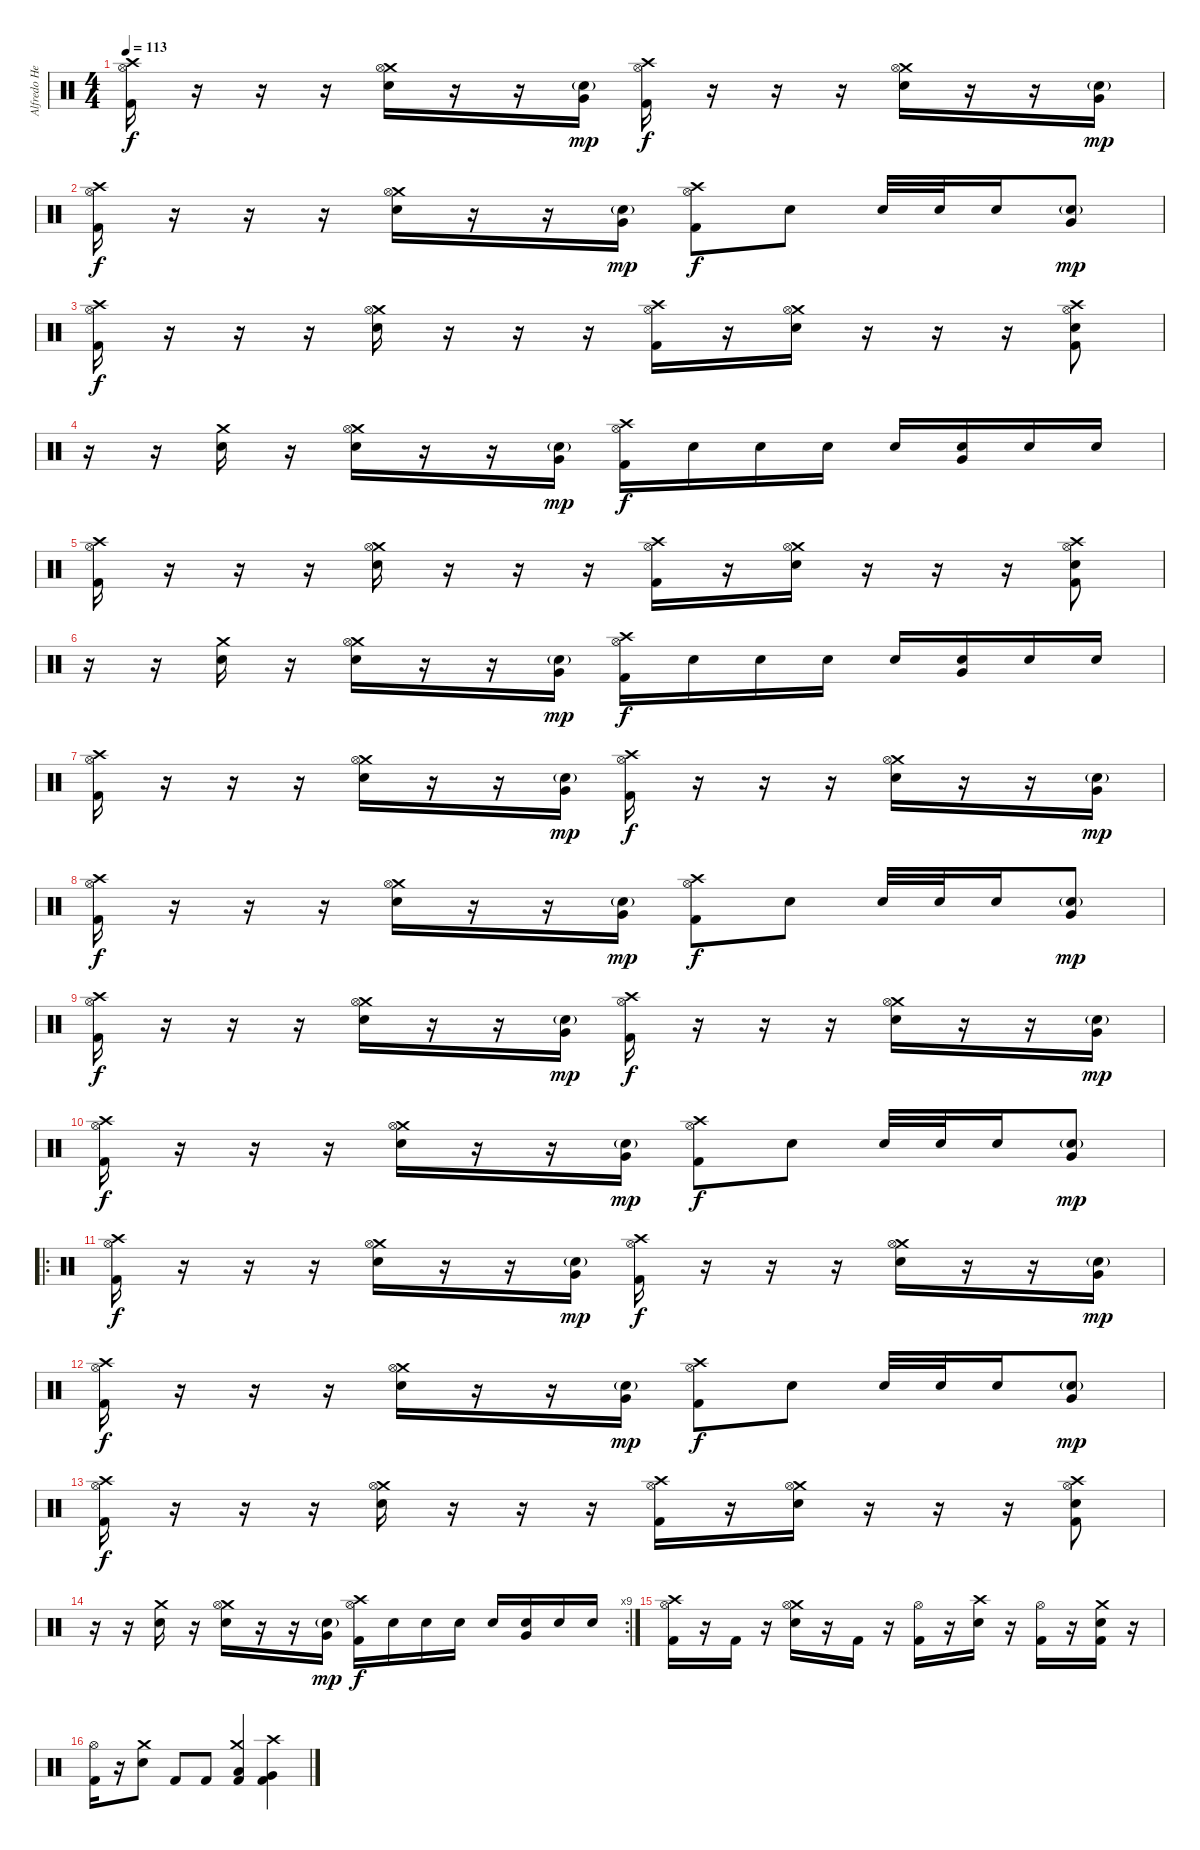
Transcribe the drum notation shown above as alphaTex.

\track ("Alfredo Hernández" "Alfredo He") {instrument percussion}
\staff {score}
\articulation defaults
\ts (4 4)
\tempo 113
\clef neutral
\ks c
("Crash high (hit)" "Hi-Hat (open)" "Kick (hit) 2").16{dy f} r.16 r.16 r.16 ("Crash medium (hit)" "Electric Snare (hit)" "Hi-Hat (open)").16 r.16 r.16 ("Electric Snare (hit)"{g} "Very Low Tom (hit)").16{dy mp} ("Crash high (hit)" "Hi-Hat (open)" "Kick (hit) 2").16{dy f} r.16 r.16 r.16 ("Crash medium (hit)" "Electric Snare (hit)" "Hi-Hat (open)").16 r.16 r.16 ("Electric Snare (hit)"{g} "Very Low Tom (hit)").16{dy mp} |
("Crash high (hit)" "Hi-Hat (open)" "Kick (hit) 2").16{dy f} r.16 r.16 r.16 ("Crash medium (hit)" "Electric Snare (hit)" "Hi-Hat (open)").16 r.16 r.16 ("Electric Snare (hit)"{g} "Very Low Tom (hit)").16{dy mp} ("Crash high (hit)" "Hi-Hat (open)" "Kick (hit) 2").8{dy f} "Electric Snare (hit)".8 "Electric Snare (hit)".32 "Electric Snare (hit)".32 "Electric Snare (hit)".16 ("Electric Snare (hit)"{g} "Very Low Tom (hit)").8{dy mp} |
("Crash high (hit)" "Hi-Hat (open)" "Kick (hit) 2").16{dy f} r.16 r.16 r.16 ("Crash medium (hit)" "Electric Snare (hit)" "Hi-Hat (open)").16 r.16 r.16 r.16 ("Crash high (hit)" "Hi-Hat (open)" "Kick (hit) 2").16 r.16 ("Crash medium (hit)" "Electric Snare (hit)" "Hi-Hat (open)").16 r.16 r.16 r.16 ("Crash high (hit)" "Electric Snare (hit)" "Hi-Hat (open)" "Kick (hit) 2").8 |
r.16 r.16 ("Crash medium (hit)" "Electric Snare (hit)").16 r.16 ("Crash medium (hit)" "Electric Snare (hit)" "Hi-Hat (open)").16 r.16 r.16 ("Electric Snare (hit)"{g} "Very Low Tom (hit)").16{dy mp} ("Crash high (hit)" "Hi-Hat (open)" "Kick (hit) 2").16{dy f} "Electric Snare (hit)".16 "Electric Snare (hit)".16 "Electric Snare (hit)".16 "Electric Snare (hit)".16 ("Electric Snare (hit)" "Very Low Tom (hit)").16 "Electric Snare (hit)".16 "Electric Snare (hit)".16 |
("Crash high (hit)" "Hi-Hat (open)" "Kick (hit) 2").16 r.16 r.16 r.16 ("Crash medium (hit)" "Electric Snare (hit)" "Hi-Hat (open)").16 r.16 r.16 r.16 ("Crash high (hit)" "Hi-Hat (open)" "Kick (hit) 2").16 r.16 ("Crash medium (hit)" "Electric Snare (hit)" "Hi-Hat (open)").16 r.16 r.16 r.16 ("Crash high (hit)" "Electric Snare (hit)" "Hi-Hat (open)" "Kick (hit) 2").8 |
r.16 r.16 ("Crash medium (hit)" "Electric Snare (hit)").16 r.16 ("Crash medium (hit)" "Electric Snare (hit)" "Hi-Hat (open)").16 r.16 r.16 ("Electric Snare (hit)"{g} "Very Low Tom (hit)").16{dy mp} ("Crash high (hit)" "Hi-Hat (open)" "Kick (hit) 2").16{dy f} "Electric Snare (hit)".16 "Electric Snare (hit)".16 "Electric Snare (hit)".16 "Electric Snare (hit)".16 ("Electric Snare (hit)" "Very Low Tom (hit)").16 "Electric Snare (hit)".16 "Electric Snare (hit)".16 |
("Crash high (hit)" "Hi-Hat (open)" "Kick (hit) 2").16 r.16 r.16 r.16 ("Crash medium (hit)" "Electric Snare (hit)" "Hi-Hat (open)").16 r.16 r.16 ("Electric Snare (hit)"{g} "Very Low Tom (hit)").16{dy mp} ("Crash high (hit)" "Hi-Hat (open)" "Kick (hit) 2").16{dy f} r.16 r.16 r.16 ("Crash medium (hit)" "Electric Snare (hit)" "Hi-Hat (open)").16 r.16 r.16 ("Electric Snare (hit)"{g} "Very Low Tom (hit)").16{dy mp} |
("Crash high (hit)" "Hi-Hat (open)" "Kick (hit) 2").16{dy f} r.16 r.16 r.16 ("Crash medium (hit)" "Electric Snare (hit)" "Hi-Hat (open)").16 r.16 r.16 ("Electric Snare (hit)"{g} "Very Low Tom (hit)").16{dy mp} ("Crash high (hit)" "Hi-Hat (open)" "Kick (hit) 2").8{dy f} "Electric Snare (hit)".8 "Electric Snare (hit)".32 "Electric Snare (hit)".32 "Electric Snare (hit)".16 ("Electric Snare (hit)"{g} "Very Low Tom (hit)").8{dy mp} |
("Crash high (hit)" "Hi-Hat (open)" "Kick (hit) 2").16{dy f} r.16 r.16 r.16 ("Crash medium (hit)" "Electric Snare (hit)" "Hi-Hat (open)").16 r.16 r.16 ("Electric Snare (hit)"{g} "Very Low Tom (hit)").16{dy mp} ("Crash high (hit)" "Hi-Hat (open)" "Kick (hit) 2").16{dy f} r.16 r.16 r.16 ("Crash medium (hit)" "Electric Snare (hit)" "Hi-Hat (open)").16 r.16 r.16 ("Electric Snare (hit)"{g} "Very Low Tom (hit)").16{dy mp} |
("Crash high (hit)" "Hi-Hat (open)" "Kick (hit) 2").16{dy f} r.16 r.16 r.16 ("Crash medium (hit)" "Electric Snare (hit)" "Hi-Hat (open)").16 r.16 r.16 ("Electric Snare (hit)"{g} "Very Low Tom (hit)").16{dy mp} ("Crash high (hit)" "Hi-Hat (open)" "Kick (hit) 2").8{dy f} "Electric Snare (hit)".8 "Electric Snare (hit)".32 "Electric Snare (hit)".32 "Electric Snare (hit)".16 ("Electric Snare (hit)"{g} "Very Low Tom (hit)").8{dy mp} |
\ro
("Crash high (hit)" "Hi-Hat (open)" "Kick (hit) 2").16{dy f} r.16 r.16 r.16 ("Crash medium (hit)" "Electric Snare (hit)" "Hi-Hat (open)").16 r.16 r.16 ("Electric Snare (hit)"{g} "Very Low Tom (hit)").16{dy mp} ("Crash high (hit)" "Hi-Hat (open)" "Kick (hit) 2").16{dy f} r.16 r.16 r.16 ("Crash medium (hit)" "Electric Snare (hit)" "Hi-Hat (open)").16 r.16 r.16 ("Electric Snare (hit)"{g} "Very Low Tom (hit)").16{dy mp} |
("Crash high (hit)" "Hi-Hat (open)" "Kick (hit) 2").16{dy f} r.16 r.16 r.16 ("Crash medium (hit)" "Electric Snare (hit)" "Hi-Hat (open)").16 r.16 r.16 ("Electric Snare (hit)"{g} "Very Low Tom (hit)").16{dy mp} ("Crash high (hit)" "Hi-Hat (open)" "Kick (hit) 2").8{dy f} "Electric Snare (hit)".8 "Electric Snare (hit)".32 "Electric Snare (hit)".32 "Electric Snare (hit)".16 ("Electric Snare (hit)"{g} "Very Low Tom (hit)").8{dy mp} |
("Crash high (hit)" "Hi-Hat (open)" "Kick (hit) 2").16{dy f} r.16 r.16 r.16 ("Crash medium (hit)" "Electric Snare (hit)" "Hi-Hat (open)").16 r.16 r.16 r.16 ("Crash high (hit)" "Hi-Hat (open)" "Kick (hit) 2").16 r.16 ("Crash medium (hit)" "Electric Snare (hit)" "Hi-Hat (open)").16 r.16 r.16 r.16 ("Crash high (hit)" "Electric Snare (hit)" "Hi-Hat (open)" "Kick (hit) 2").8 |
\rc 9
r.16 r.16 ("Crash medium (hit)" "Electric Snare (hit)").16 r.16 ("Crash medium (hit)" "Electric Snare (hit)" "Hi-Hat (open)").16 r.16 r.16 ("Electric Snare (hit)"{g} "Very Low Tom (hit)").16{dy mp} ("Crash high (hit)" "Hi-Hat (open)" "Kick (hit) 2").16{dy f} "Electric Snare (hit)".16 "Electric Snare (hit)".16 "Electric Snare (hit)".16 "Electric Snare (hit)".16 ("Electric Snare (hit)" "Very Low Tom (hit)").16 "Electric Snare (hit)".16 "Electric Snare (hit)".16 |
("Crash high (hit)" "Hi-Hat (open)" "Kick (hit) 2").16 r.16 "Kick (hit) 2".16 r.16 ("Crash medium (hit)" "Electric Snare (hit)" "Hi-Hat (open)").16 r.16 "Kick (hit) 2".16 r.16 ("Hi-Hat (open)" "Kick (hit) 2").16 r.16 ("Crash high (hit)" "Electric Snare (hit)").16 r.16 ("Hi-Hat (open)" "Kick (hit) 2").16 r.16 ("Crash medium (hit)" "Electric Snare (hit)" "Kick (hit) 2").16 r.16 |
("Hi-Hat (open)" "Kick (hit) 2").16 r.16 ("Crash medium (hit)" "Electric Snare (hit)").8 "Kick (hit) 2".8 "Kick (hit) 2".8 ("Crash medium (hit)" "Low Tom (hit)" "Kick (hit) 2").4 ("Crash high (hit)" "Very Low Tom (hit)" "Kick (hit) 2").4
